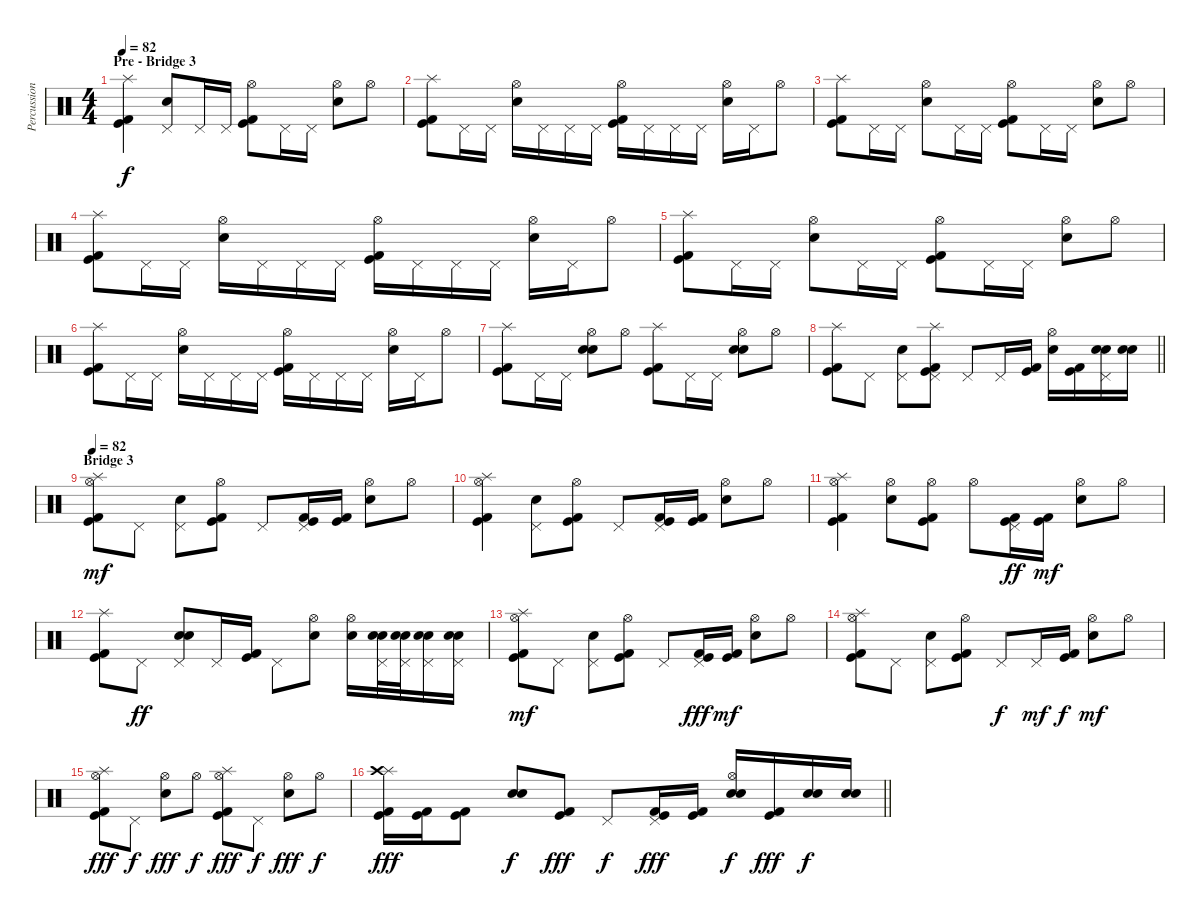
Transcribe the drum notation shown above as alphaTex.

\track ("Percussion" "Percussion") {instrument percussion}
\staff {score}
\articulation defaults
\ts (4 4)
\section ("" "Pre - Bridge 3")
\tempo 82
\clef neutral
\ks c
("Splash (hit)" "Kick (hit)" "Kick (hit) 2").4{dy f} ("Snare (hit) 2" "Pedal Hi-Hat (hit)").8 "Pedal Hi-Hat (hit)".16 "Pedal Hi-Hat (hit)".16 ("Hi-Hat (open)" "Kick (hit)" "Kick (hit) 2").8 "Pedal Hi-Hat (hit)".16 "Pedal Hi-Hat (hit)".16 ("Snare (hit) 2" "Hi-Hat (open)").8 "Hi-Hat (open)".8 |
("Splash (hit)" "Kick (hit)" "Kick (hit) 2").8 "Pedal Hi-Hat (hit)".16 "Pedal Hi-Hat (hit)".16 ("Snare (hit) 2" "Hi-Hat (open)").16 "Pedal Hi-Hat (hit)".16 "Pedal Hi-Hat (hit)".16 "Pedal Hi-Hat (hit)".16 ("Hi-Hat (open)" "Kick (hit)" "Kick (hit) 2").16 "Pedal Hi-Hat (hit)".16 "Pedal Hi-Hat (hit)".16 "Pedal Hi-Hat (hit)".16 ("Snare (hit) 2" "Hi-Hat (open)").16 "Pedal Hi-Hat (hit)".16 "Hi-Hat (open)".8 |
("Splash (hit)" "Kick (hit)" "Kick (hit) 2").8 "Pedal Hi-Hat (hit)".16 "Pedal Hi-Hat (hit)".16 ("Snare (hit) 2" "Hi-Hat (open)").8 "Pedal Hi-Hat (hit)".16 "Pedal Hi-Hat (hit)".16 ("Hi-Hat (open)" "Kick (hit)" "Kick (hit) 2").8 "Pedal Hi-Hat (hit)".16 "Pedal Hi-Hat (hit)".16 ("Snare (hit) 2" "Hi-Hat (open)").8 "Hi-Hat (open)".8 |
("Splash (hit)" "Kick (hit)" "Kick (hit) 2").8 "Pedal Hi-Hat (hit)".16 "Pedal Hi-Hat (hit)".16 ("Snare (hit) 2" "Hi-Hat (open)").16 "Pedal Hi-Hat (hit)".16 "Pedal Hi-Hat (hit)".16 "Pedal Hi-Hat (hit)".16 ("Hi-Hat (open)" "Kick (hit)" "Kick (hit) 2").16 "Pedal Hi-Hat (hit)".16 "Pedal Hi-Hat (hit)".16 "Pedal Hi-Hat (hit)".16 ("Snare (hit) 2" "Hi-Hat (open)").16 "Pedal Hi-Hat (hit)".16 "Hi-Hat (open)".8 |
("Splash (hit)" "Kick (hit)" "Kick (hit) 2").8 "Pedal Hi-Hat (hit)".16 "Pedal Hi-Hat (hit)".16 ("Snare (hit) 2" "Hi-Hat (open)").8 "Pedal Hi-Hat (hit)".16 "Pedal Hi-Hat (hit)".16 ("Hi-Hat (open)" "Kick (hit)" "Kick (hit) 2").8 "Pedal Hi-Hat (hit)".16 "Pedal Hi-Hat (hit)".16 ("Snare (hit) 2" "Hi-Hat (open)").8 "Hi-Hat (open)".8 |
("Splash (hit)" "Kick (hit)" "Kick (hit) 2").8 "Pedal Hi-Hat (hit)".16 "Pedal Hi-Hat (hit)".16 ("Snare (hit) 2" "Hi-Hat (open)").16 "Pedal Hi-Hat (hit)".16 "Pedal Hi-Hat (hit)".16 "Pedal Hi-Hat (hit)".16 ("Hi-Hat (open)" "Kick (hit)" "Kick (hit) 2").16 "Pedal Hi-Hat (hit)".16 "Pedal Hi-Hat (hit)".16 "Pedal Hi-Hat (hit)".16 ("Snare (hit) 2" "Hi-Hat (open)").16 "Pedal Hi-Hat (hit)".16 "Hi-Hat (open)".8 |
("Splash (hit)" "Kick (hit)" "Kick (hit) 2").8 "Pedal Hi-Hat (hit)".16 "Pedal Hi-Hat (hit)".16 ("Snare (hit) 2" "Electric Snare (hit)" "Hi-Hat (open)").8 "Hi-Hat (open)".8 ("Splash (hit)" "Kick (hit)" "Kick (hit) 2").8 "Pedal Hi-Hat (hit)".16 "Pedal Hi-Hat (hit)".16 ("Snare (hit) 2" "Electric Snare (hit)" "Hi-Hat (open)").8 "Hi-Hat (open)".8 |
\barLineRight lightlight
("Splash (hit)" "Kick (hit)" "Kick (hit) 2").8 "Pedal Hi-Hat (hit)".8 ("Electric Snare (hit)" "Pedal Hi-Hat (hit)").8 ("Splash (hit)" "Pedal Hi-Hat (hit)" "Kick (hit)" "Kick (hit) 2").8 "Pedal Hi-Hat (hit)".8 "Pedal Hi-Hat (hit)".16 ("Kick (hit)" "Kick (hit) 2").16 ("Snare (hit) 2" "Hi-Hat (open)").16 ("Kick (hit)" "Kick (hit) 2").16 ("Snare (hit) 2" "Electric Snare (hit)" "Pedal Hi-Hat (hit)").16 ("Snare (hit) 2" "Electric Snare (hit)").16 |
\section ("" "Bridge 3")
\tempo 82
("Splash (hit)" "Hi-Hat (open)" "Kick (hit)" "Kick (hit) 2").8{dy mf} "Pedal Hi-Hat (hit)".8 ("Snare (hit) 2" "Pedal Hi-Hat (hit)").8 ("Hi-Hat (open)" "Kick (hit)" "Kick (hit) 2").8 "Pedal Hi-Hat (hit)".8 ("Pedal Hi-Hat (hit)" "Kick (hit)" "Kick (hit) 2").16 ("Kick (hit)" "Kick (hit) 2").16 ("Snare (hit) 2" "Hi-Hat (open)").8 "Hi-Hat (open)".8 |
("Splash (hit)" "Hi-Hat (open)" "Kick (hit)" "Kick (hit) 2").4 ("Snare (hit) 2" "Pedal Hi-Hat (hit)").8 ("Hi-Hat (open)" "Kick (hit)" "Kick (hit) 2").8 "Pedal Hi-Hat (hit)".8 ("Pedal Hi-Hat (hit)" "Kick (hit)" "Kick (hit) 2").16 ("Kick (hit)" "Kick (hit) 2").16 ("Snare (hit) 2" "Hi-Hat (open)").8 "Hi-Hat (open)".8 |
("Splash (hit)" "Hi-Hat (open)" "Kick (hit)" "Kick (hit) 2").4 ("Snare (hit) 2" "Hi-Hat (open)").8 ("Hi-Hat (open)" "Kick (hit)" "Kick (hit) 2").8 "Hi-Hat (open)".8 ("Pedal Hi-Hat (hit)" "Kick (hit)" "Kick (hit) 2").16{dy ff} ("Kick (hit)" "Kick (hit) 2").16{dy mf} ("Snare (hit) 2" "Hi-Hat (open)").8 "Hi-Hat (open)".8 |
("Splash (hit)" "Kick (hit)" "Kick (hit) 2").8 "Pedal Hi-Hat (hit)".8{dy ff} ("Snare (hit) 2" "Electric Snare (hit)" "Pedal Hi-Hat (hit)").8 "Pedal Hi-Hat (hit)".16 ("Kick (hit)" "Kick (hit) 2").16 "Pedal Hi-Hat (hit)".8 ("Snare (hit) 2" "Hi-Hat (open)").8 ("Snare (hit) 2" "Hi-Hat (open)").16 ("Snare (hit) 2" "Electric Snare (hit)" "Pedal Hi-Hat (hit)").32 ("Snare (hit) 2" "Electric Snare (hit)" "Pedal Hi-Hat (hit)").32 ("Snare (hit) 2" "Electric Snare (hit)" "Pedal Hi-Hat (hit)").16 ("Snare (hit) 2" "Electric Snare (hit)" "Pedal Hi-Hat (hit)").16 |
("Splash (hit)" "Hi-Hat (open)" "Kick (hit)" "Kick (hit) 2").8{dy mf} "Pedal Hi-Hat (hit)".8 ("Snare (hit) 2" "Pedal Hi-Hat (hit)").8 ("Hi-Hat (open)" "Kick (hit)" "Kick (hit) 2").8 "Pedal Hi-Hat (hit)".8 ("Pedal Hi-Hat (hit)" "Kick (hit)" "Kick (hit) 2").16{dy fff} ("Kick (hit)" "Kick (hit) 2").16{dy mf} ("Snare (hit) 2" "Hi-Hat (open)").8 "Hi-Hat (open)".8 |
("Splash (hit)" "Hi-Hat (open)" "Kick (hit)" "Kick (hit) 2").8 "Pedal Hi-Hat (hit)".8 ("Snare (hit) 2" "Pedal Hi-Hat (hit)").8 ("Hi-Hat (open)" "Kick (hit)" "Kick (hit) 2").8 "Pedal Hi-Hat (hit)".8{dy f} "Pedal Hi-Hat (hit)".16{dy mf} ("Kick (hit)" "Kick (hit) 2").16{dy f} ("Snare (hit) 2" "Hi-Hat (open)").8{dy mf} "Hi-Hat (open)".8 |
("Splash (hit)" "Hi-Hat (open)" "Kick (hit)" "Kick (hit) 2").8{dy fff} "Pedal Hi-Hat (hit)".8{dy f} ("Snare (hit) 2" "Hi-Hat (open)").8{dy fff} "Hi-Hat (open)".8{dy f} ("Splash (hit)" "Hi-Hat (open)" "Kick (hit)" "Kick (hit) 2").8{dy fff} "Pedal Hi-Hat (hit)".8{dy f} ("Snare (hit) 2" "Hi-Hat (open)").8{dy fff} "Hi-Hat (open)".8{dy f} |
\barLineRight lightlight
("Splash (hit)" "Crash high (hit)" "Kick (hit)" "Kick (hit) 2").16{dy fff} ("Kick (hit)" "Kick (hit) 2").16 ("Kick (hit)" "Kick (hit) 2").8 ("Snare (hit) 2" "Electric Snare (hit)").8{dy f} ("Kick (hit)" "Kick (hit) 2").8{dy fff} "Pedal Hi-Hat (hit)".8{dy f} ("Pedal Hi-Hat (hit)" "Kick (hit)" "Kick (hit) 2").16{dy fff} ("Kick (hit) 2" "Kick (hit)").16 ("Electric Snare (hit)" "Snare (hit) 2" "Hi-Hat (open)").16{dy f} ("Kick (hit)" "Kick (hit) 2").16{dy fff} ("Electric Snare (hit)" "Snare (hit) 2").16{dy f} ("Electric Snare (hit)" "Snare (hit) 2").16
